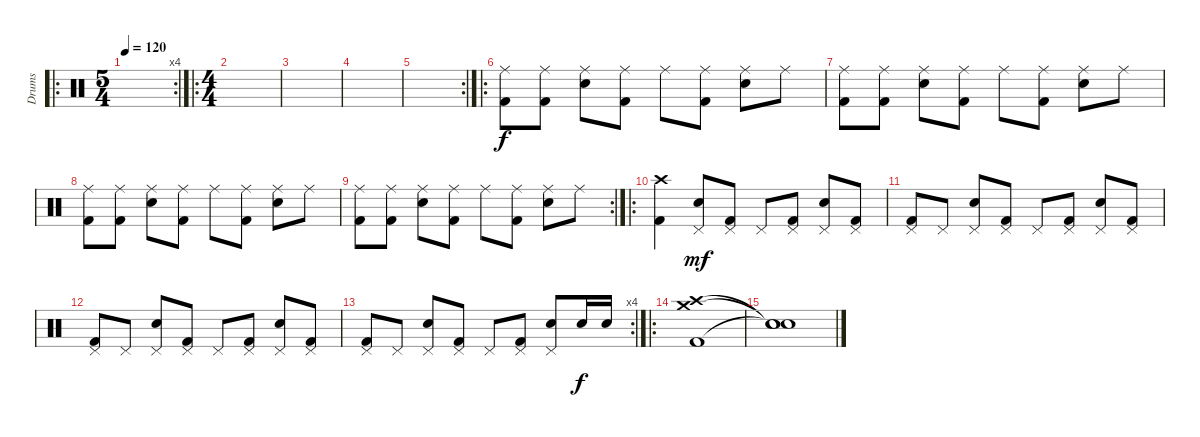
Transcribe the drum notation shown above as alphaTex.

\track ("Drums" "Drums") {instrument percussion}
\staff {score}
\articulation defaults
\ro
\rc 4
\ts (5 4)
\tempo 120
\clef neutral
\ks c
|
\ro
\ts (4 4)
|
|
|
\rc 2
|
\ro
("Ride (middle)" "Kick (hit) 2").8 ("Ride (middle)" "Kick (hit) 2").8 ("Ride (middle)" "Electric Snare (hit)").8 ("Ride (middle)" "Kick (hit) 2").8 "Ride (middle)".8 ("Ride (middle)" "Kick (hit) 2").8 ("Ride (middle)" "Electric Snare (hit)").8 "Ride (middle)".8 |
("Ride (middle)" "Kick (hit) 2").8 ("Ride (middle)" "Kick (hit) 2").8 ("Ride (middle)" "Electric Snare (hit)").8 ("Ride (middle)" "Kick (hit) 2").8 "Ride (middle)".8 ("Ride (middle)" "Kick (hit) 2").8 ("Ride (middle)" "Electric Snare (hit)").8 "Ride (middle)".8 |
("Ride (middle)" "Kick (hit) 2").8 ("Ride (middle)" "Kick (hit) 2").8 ("Ride (middle)" "Electric Snare (hit)").8 ("Ride (middle)" "Kick (hit) 2").8 "Ride (middle)".8 ("Ride (middle)" "Kick (hit) 2").8 ("Ride (middle)" "Electric Snare (hit)").8 "Ride (middle)".8 |
\rc 2
("Ride (middle)" "Kick (hit) 2").8 ("Ride (middle)" "Kick (hit) 2").8 ("Ride (middle)" "Electric Snare (hit)").8 ("Ride (middle)" "Kick (hit) 2").8 "Ride (middle)".8 ("Ride (middle)" "Kick (hit) 2").8 ("Ride (middle)" "Electric Snare (hit)").8 "Ride (middle)".8 |
\ro
("Crash high (hit)" "Kick (hit) 2").4 ("Pedal Hi-Hat (hit)" "Electric Snare (hit)").8{dy mf} ("Pedal Hi-Hat (hit)" "Kick (hit) 2").8 "Pedal Hi-Hat (hit)".8 ("Pedal Hi-Hat (hit)" "Kick (hit) 2").8 ("Pedal Hi-Hat (hit)" "Electric Snare (hit)").8 ("Pedal Hi-Hat (hit)" "Kick (hit) 2").8 |
("Pedal Hi-Hat (hit)" "Kick (hit) 2").8 "Pedal Hi-Hat (hit)".8 ("Pedal Hi-Hat (hit)" "Electric Snare (hit)").8 ("Pedal Hi-Hat (hit)" "Kick (hit) 2").8 "Pedal Hi-Hat (hit)".8 ("Pedal Hi-Hat (hit)" "Kick (hit) 2").8 ("Pedal Hi-Hat (hit)" "Electric Snare (hit)").8 ("Pedal Hi-Hat (hit)" "Kick (hit) 2").8 |
("Pedal Hi-Hat (hit)" "Kick (hit) 2").8 "Pedal Hi-Hat (hit)".8 ("Pedal Hi-Hat (hit)" "Electric Snare (hit)").8 ("Pedal Hi-Hat (hit)" "Kick (hit) 2").8 "Pedal Hi-Hat (hit)".8 ("Pedal Hi-Hat (hit)" "Kick (hit) 2").8 ("Pedal Hi-Hat (hit)" "Electric Snare (hit)").8 ("Pedal Hi-Hat (hit)" "Kick (hit) 2").8 |
\rc 4
("Pedal Hi-Hat (hit)" "Kick (hit) 2").8 "Pedal Hi-Hat (hit)".8 ("Pedal Hi-Hat (hit)" "Electric Snare (hit)").8 ("Pedal Hi-Hat (hit)" "Kick (hit) 2").8 "Pedal Hi-Hat (hit)".8 ("Pedal Hi-Hat (hit)" "Kick (hit) 2").8 ("Pedal Hi-Hat (hit)" "Electric Snare (hit)").8 "Electric Snare (hit)".16{dy f} "Electric Snare (hit)".16 |
\ro
("Crash high (hit)" "Crash medium (hit)" "Kick (hit) 2").1{volume 0} |
("Snare (hit)"{t} "Snare (hit)"{t} "Snare (hit)"{t}).1
